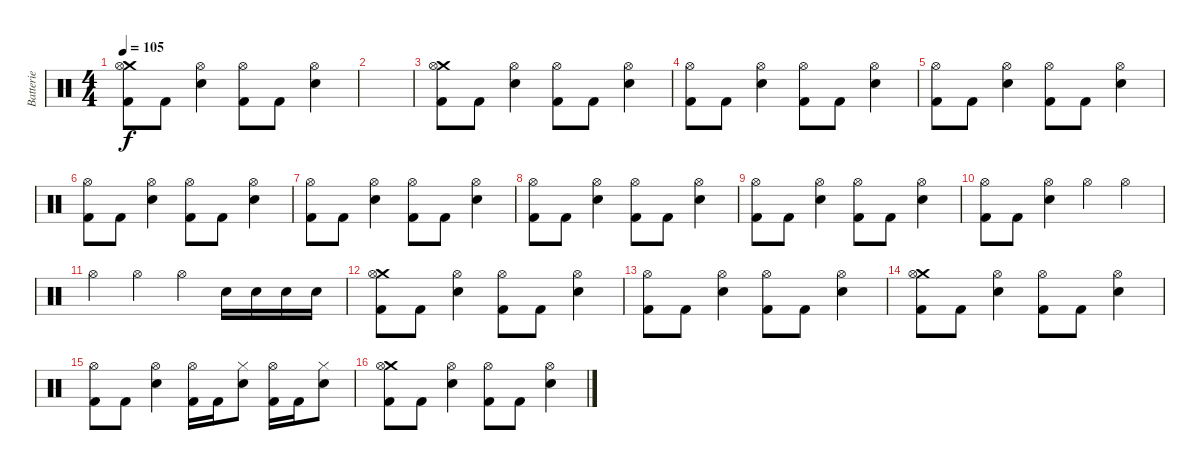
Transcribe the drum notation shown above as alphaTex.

\track ("Batterie" "Batterie") {instrument percussion}
\staff {score}
\articulation defaults
\ts (4 4)
\tempo 105
\clef neutral
\ks c
("Kick (hit) 2" "Crash medium (hit)" "Hi-Hat (open)").8{dy f} "Kick (hit) 2".8 ("Electric Snare (hit)" "Hi-Hat (open)").4 ("Kick (hit) 2" "Hi-Hat (open)").8 "Kick (hit) 2".8 ("Electric Snare (hit)" "Hi-Hat (open)").4 |
|
("Kick (hit) 2" "Crash medium (hit)" "Hi-Hat (open)").8 "Kick (hit) 2".8 ("Electric Snare (hit)" "Hi-Hat (open)").4 ("Kick (hit) 2" "Hi-Hat (open)").8 "Kick (hit) 2".8 ("Electric Snare (hit)" "Hi-Hat (open)").4 |
("Kick (hit) 2" "Hi-Hat (open)").8 "Kick (hit) 2".8 ("Electric Snare (hit)" "Hi-Hat (open)").4 ("Kick (hit) 2" "Hi-Hat (open)").8 "Kick (hit) 2".8 ("Electric Snare (hit)" "Hi-Hat (open)").4 |
("Kick (hit) 2" "Hi-Hat (open)").8 "Kick (hit) 2".8 ("Electric Snare (hit)" "Hi-Hat (open)").4 ("Kick (hit) 2" "Hi-Hat (open)").8 "Kick (hit) 2".8 ("Electric Snare (hit)" "Hi-Hat (open)").4 |
("Kick (hit) 2" "Hi-Hat (open)").8 "Kick (hit) 2".8 ("Electric Snare (hit)" "Hi-Hat (open)").4 ("Kick (hit) 2" "Hi-Hat (open)").8 "Kick (hit) 2".8 ("Electric Snare (hit)" "Hi-Hat (open)").4 |
("Kick (hit) 2" "Hi-Hat (open)").8 "Kick (hit) 2".8 ("Electric Snare (hit)" "Hi-Hat (open)").4 ("Kick (hit) 2" "Hi-Hat (open)").8 "Kick (hit) 2".8 ("Electric Snare (hit)" "Hi-Hat (open)").4 |
("Kick (hit) 2" "Hi-Hat (open)").8 "Kick (hit) 2".8 ("Electric Snare (hit)" "Hi-Hat (open)").4 ("Kick (hit) 2" "Hi-Hat (open)").8 "Kick (hit) 2".8 ("Electric Snare (hit)" "Hi-Hat (open)").4 |
("Kick (hit) 2" "Hi-Hat (open)").8 "Kick (hit) 2".8 ("Electric Snare (hit)" "Hi-Hat (open)").4 ("Kick (hit) 2" "Hi-Hat (open)").8 "Kick (hit) 2".8 ("Electric Snare (hit)" "Hi-Hat (open)").4 |
("Kick (hit) 2" "Hi-Hat (open)").8 "Kick (hit) 2".8 ("Electric Snare (hit)" "Hi-Hat (open)").4 "Hi-Hat (open)".4 "Hi-Hat (open)".4 |
"Hi-Hat (open)".4 "Hi-Hat (open)".4 "Hi-Hat (open)".4 "Electric Snare (hit)".16 "Electric Snare (hit)".16 "Electric Snare (hit)".16 "Electric Snare (hit)".16 |
("Kick (hit) 2" "Crash medium (hit)" "Hi-Hat (open)").8 "Kick (hit) 2".8 ("Electric Snare (hit)" "Hi-Hat (open)").4 ("Kick (hit) 2" "Hi-Hat (open)").8 "Kick (hit) 2".8 ("Electric Snare (hit)" "Hi-Hat (open)").4 |
("Kick (hit) 2" "Hi-Hat (open)").8 "Kick (hit) 2".8 ("Electric Snare (hit)" "Hi-Hat (open)").4 ("Kick (hit) 2" "Hi-Hat (open)").8 "Kick (hit) 2".8 ("Electric Snare (hit)" "Hi-Hat (open)").4 |
("Kick (hit) 2" "Crash medium (hit)" "Hi-Hat (open)").8 "Kick (hit) 2".8 ("Electric Snare (hit)" "Hi-Hat (open)").4 ("Kick (hit) 2" "Hi-Hat (open)").8 "Kick (hit) 2".8 ("Electric Snare (hit)" "Hi-Hat (open)").4 |
("Kick (hit) 2" "Hi-Hat (open)").8 "Kick (hit) 2".8 ("Electric Snare (hit)" "Hi-Hat (open)").4 ("Kick (hit) 2" "Hi-Hat (open)").16 "Kick (hit) 2".16 ("Electric Snare (hit)" "Hi-Hat (closed)").8 ("Kick (hit) 2" "Hi-Hat (open)").16 "Kick (hit) 2".16 ("Electric Snare (hit)" "Hi-Hat (closed)").8 |
("Kick (hit) 2" "Crash medium (hit)" "Hi-Hat (open)").8 "Kick (hit) 2".8 ("Electric Snare (hit)" "Hi-Hat (open)").4 ("Kick (hit) 2" "Hi-Hat (open)").8 "Kick (hit) 2".8 ("Electric Snare (hit)" "Hi-Hat (open)").4
